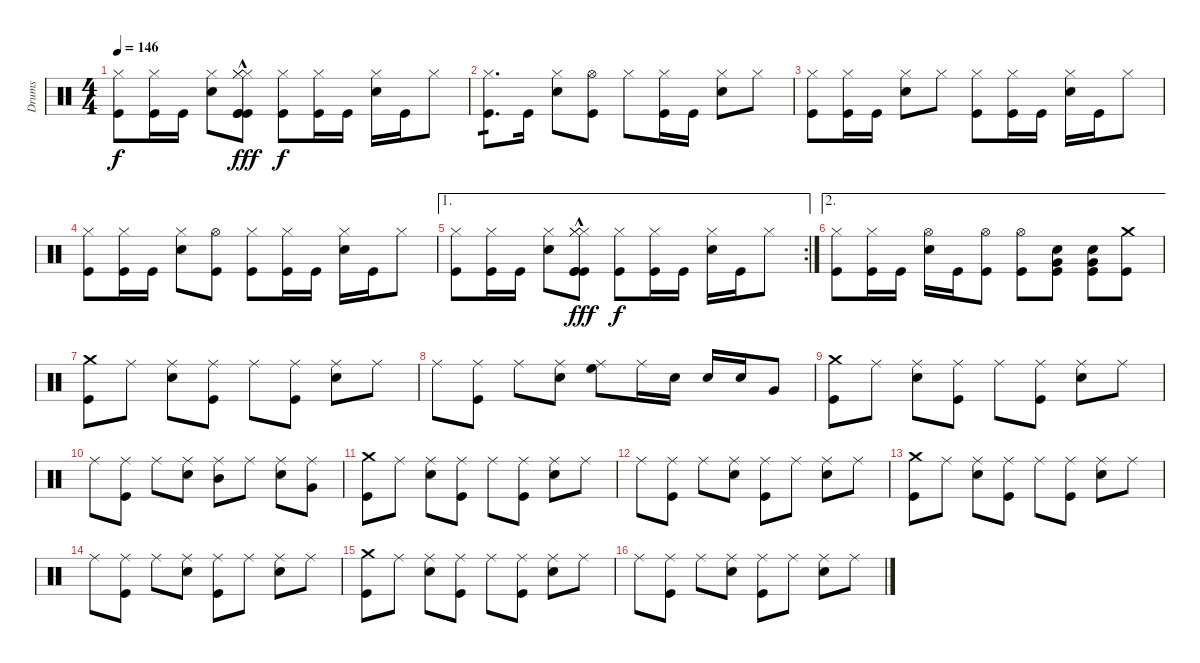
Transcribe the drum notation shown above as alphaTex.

\track ("Drums" "Drums") {instrument percussion}
\staff {score}
\articulation defaults
\ts (4 4)
\tempo 146
\clef neutral
\ks c
("Hi-Hat (closed)" "Kick (hit)").8{dy f} ("Hi-Hat (closed)" "Kick (hit)").16 "Kick (hit)".16 ("Hi-Hat (closed)" "Electric Snare (hit)").8 ("Hi-Hat (closed)"{hac} "Hi-Hat (closed)"{hac} "Hi-Hat (closed)"{hac} "Kick (hit)"{hac} "Kick (hit)"{hac} "Kick (hit)"{hac}).8{dy fff} ("Hi-Hat (closed)" "Kick (hit)").8{dy f} ("Hi-Hat (closed)" "Kick (hit)").16 "Kick (hit)".16 ("Hi-Hat (closed)" "Electric Snare (hit)").16 "Kick (hit)".16 "Hi-Hat (closed)".8 |
("Hi-Hat (closed)" "Kick (hit)").8{d tp 1} "Kick (hit)".16 ("Hi-Hat (closed)" "Electric Snare (hit)").8 ("Hi-Hat (open)" "Kick (hit)").8 "Hi-Hat (closed)".8 ("Hi-Hat (closed)" "Kick (hit)").16 "Kick (hit)".16 ("Hi-Hat (closed)" "Electric Snare (hit)").8 "Hi-Hat (closed)".8 |
("Hi-Hat (closed)" "Kick (hit)").8 ("Hi-Hat (closed)" "Kick (hit)").16 "Kick (hit)".16 ("Hi-Hat (closed)" "Electric Snare (hit)").8 "Hi-Hat (closed)".8 ("Hi-Hat (closed)" "Kick (hit)").8 ("Hi-Hat (closed)" "Kick (hit)").16 "Kick (hit)".16 ("Hi-Hat (closed)" "Electric Snare (hit)").16 "Kick (hit)".16 "Hi-Hat (closed)".8 |
("Hi-Hat (closed)" "Kick (hit)").8 ("Hi-Hat (closed)" "Kick (hit)").16 "Kick (hit)".16 ("Hi-Hat (closed)" "Electric Snare (hit)").8 ("Hi-Hat (open)" "Kick (hit)").8 ("Hi-Hat (closed)" "Kick (hit)").8 ("Hi-Hat (closed)" "Kick (hit)").16 "Kick (hit)".16 ("Hi-Hat (closed)" "Electric Snare (hit)").16 "Kick (hit)".16 "Hi-Hat (closed)".8 |
\ae 1
\rc 2
("Hi-Hat (closed)" "Kick (hit)").8 ("Hi-Hat (closed)" "Kick (hit)").16 "Kick (hit)".16 ("Hi-Hat (closed)" "Electric Snare (hit)").8 ("Hi-Hat (closed)"{hac} "Hi-Hat (closed)"{hac} "Hi-Hat (closed)"{hac} "Kick (hit)"{hac} "Kick (hit)"{hac} "Kick (hit)"{hac}).8{dy fff} ("Hi-Hat (closed)" "Kick (hit)").8{dy f} ("Hi-Hat (closed)" "Kick (hit)").16 "Kick (hit)".16 ("Hi-Hat (closed)" "Electric Snare (hit)").16 "Kick (hit)".16 "Hi-Hat (closed)".8 |
\ae 2
("Hi-Hat (closed)" "Kick (hit)").8 ("Hi-Hat (closed)" "Kick (hit)").16 "Kick (hit)".16 ("Hi-Hat (open)" "Electric Snare (hit)").16 "Kick (hit)".16 ("Hi-Hat (open)" "Kick (hit)").8 ("Hi-Hat (open)" "Kick (hit)").8 ("Very Low Tom (hit)" "Electric Snare (hit)" "Kick (hit)").8 ("Very Low Tom (hit)" "Electric Snare (hit)" "Kick (hit)").8 ("Crash medium (hit)" "Kick (hit)").8 |
("Crash medium (hit)" "Kick (hit)").8 "Ride (middle)".8 ("Ride (middle)" "Electric Snare (hit)").8 ("Ride (middle)" "Kick (hit)").8 "Ride (middle)".8 ("Ride (middle)" "Kick (hit)").8 ("Ride (middle)" "Electric Snare (hit)").8 "Ride (middle)".8 |
"Ride (middle)".8 ("Ride (middle)" "Kick (hit)").8 "Ride (middle)".8 ("Ride (middle)" "Electric Snare (hit)").8 ("Ride (middle)" "High Floor Tom (hit)").8 "Ride (middle)".16 "Electric Snare (hit)".16 "Electric Snare (hit)".16 "Electric Snare (hit)".16 "Very Low Tom (hit)".8 |
("Crash medium (hit)" "Kick (hit)").8 "Ride (middle)".8 ("Ride (middle)" "Electric Snare (hit)").8 ("Ride (middle)" "Kick (hit)").8 "Ride (middle)".8 ("Ride (middle)" "Kick (hit)").8 ("Ride (middle)" "Electric Snare (hit)").8 "Ride (middle)".8 |
"Ride (middle)".8 ("Ride (middle)" "Kick (hit)").8 "Ride (middle)".8 ("Ride (middle)" "Electric Snare (hit)").8 ("Ride (middle)" "Mid Tom (hit)").8 "Ride (middle)".8 ("Ride (middle)" "Electric Snare (hit)").8 ("Ride (middle)" "Very Low Tom (hit)").8 |
("Crash medium (hit)" "Kick (hit)").8 "Ride (middle)".8 ("Ride (middle)" "Electric Snare (hit)").8 ("Ride (middle)" "Kick (hit)").8 "Ride (middle)".8 ("Ride (middle)" "Kick (hit)").8 ("Ride (middle)" "Electric Snare (hit)").8 "Ride (middle)".8 |
"Ride (middle)".8 ("Ride (middle)" "Kick (hit)").8 "Ride (middle)".8 ("Ride (middle)" "Electric Snare (hit)").8 ("Ride (middle)" "Kick (hit)").8 "Ride (middle)".8 ("Ride (middle)" "Electric Snare (hit)").8 "Ride (middle)".8 |
("Crash medium (hit)" "Kick (hit)").8 "Ride (middle)".8 ("Ride (middle)" "Electric Snare (hit)").8 ("Ride (middle)" "Kick (hit)").8 "Ride (middle)".8 ("Ride (middle)" "Kick (hit)").8 ("Ride (middle)" "Electric Snare (hit)").8 "Ride (middle)".8 |
"Ride (middle)".8 ("Ride (middle)" "Kick (hit)").8 "Ride (middle)".8 ("Ride (middle)" "Electric Snare (hit)").8 ("Ride (middle)" "Kick (hit)").8 "Ride (middle)".8 ("Ride (middle)" "Electric Snare (hit)").8 "Ride (middle)".8 |
("Crash medium (hit)" "Kick (hit)").8 "Ride (middle)".8 ("Ride (middle)" "Electric Snare (hit)").8 ("Ride (middle)" "Kick (hit)").8 "Ride (middle)".8 ("Ride (middle)" "Kick (hit)").8 ("Ride (middle)" "Electric Snare (hit)").8 "Ride (middle)".8 |
"Ride (middle)".8 ("Ride (middle)" "Kick (hit)").8 "Ride (middle)".8 ("Ride (middle)" "Electric Snare (hit)").8 ("Ride (middle)" "Kick (hit)").8 "Ride (middle)".8 ("Ride (middle)" "Electric Snare (hit)").8 "Ride (middle)".8
